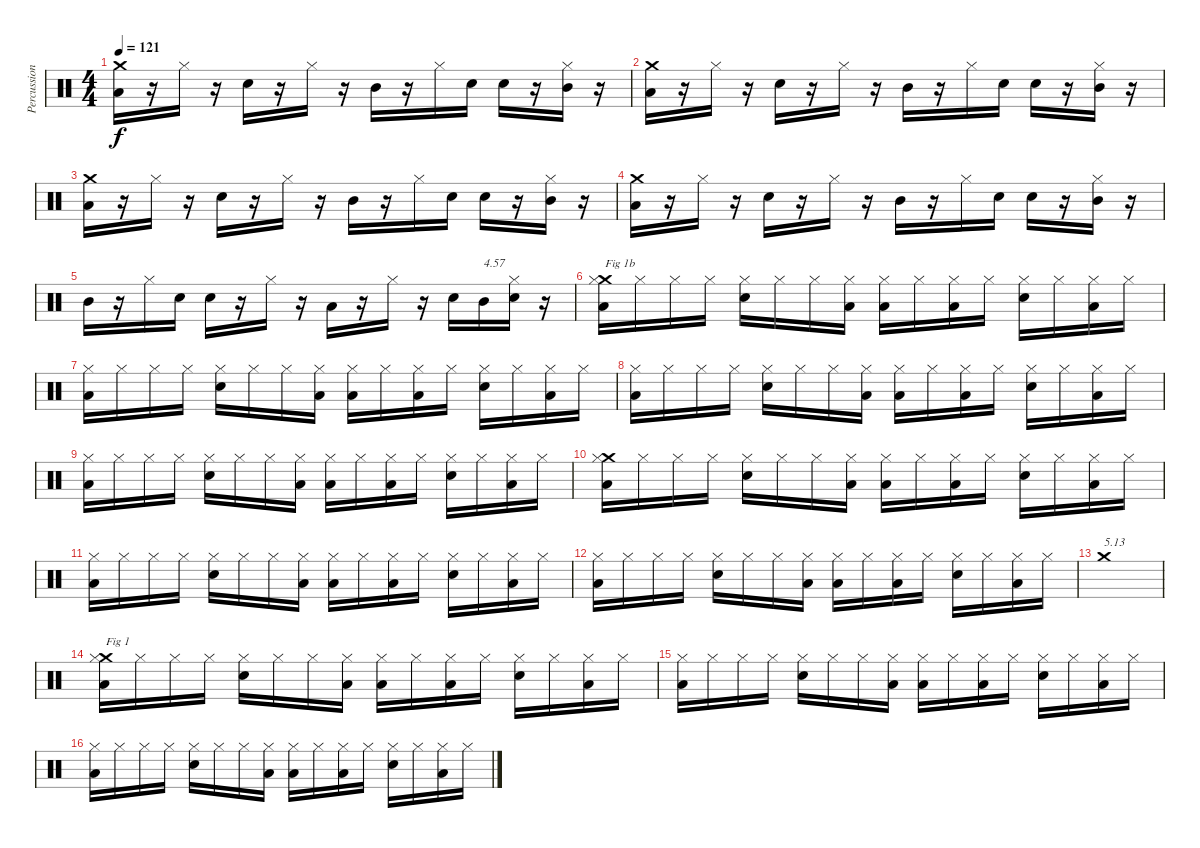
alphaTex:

\track ("Percussions" "Percussion") {instrument percussion}
\staff {score}
\articulation defaults
\ts (4 4)
\tempo 121
\clef neutral
\ks c
("Low Floor Tom (hit)" "Crash medium (hit)").16{dy f} r.16 "Hi-Hat (closed)".16 r.16 "Electric Snare (hit)".16 r.16 "Hi-Hat (closed)".16 r.16 "Mid Tom (hit)".16 r.16 "Hi-Hat (closed)".16 "Electric Snare (hit)".16 "Electric Snare (hit)".16 r.16 ("Mid Tom (hit)" "Hi-Hat (closed)").16 r.16 |
("Low Floor Tom (hit)" "Crash medium (hit)").16 r.16 "Hi-Hat (closed)".16 r.16 "Electric Snare (hit)".16 r.16 "Hi-Hat (closed)".16 r.16 "Mid Tom (hit)".16 r.16 "Hi-Hat (closed)".16 "Electric Snare (hit)".16 "Electric Snare (hit)".16 r.16 ("Mid Tom (hit)" "Hi-Hat (closed)").16 r.16 |
("Low Floor Tom (hit)" "Crash medium (hit)").16 r.16 "Hi-Hat (closed)".16 r.16 "Electric Snare (hit)".16 r.16 "Hi-Hat (closed)".16 r.16 "Mid Tom (hit)".16 r.16 "Hi-Hat (closed)".16 "Electric Snare (hit)".16 "Electric Snare (hit)".16 r.16 ("Mid Tom (hit)" "Hi-Hat (closed)").16 r.16 |
("Low Floor Tom (hit)" "Crash medium (hit)").16 r.16 "Hi-Hat (closed)".16 r.16 "Electric Snare (hit)".16 r.16 "Hi-Hat (closed)".16 r.16 "Mid Tom (hit)".16 r.16 "Hi-Hat (closed)".16 "Electric Snare (hit)".16 "Electric Snare (hit)".16 r.16 ("Mid Tom (hit)" "Hi-Hat (closed)").16 r.16 |
"Mid Tom (hit)".16 r.16 "Hi-Hat (closed)".16 "Electric Snare (hit)".16 "Electric Snare (hit)".16 r.16 "Hi-Hat (closed)".16 r.16 "Low Floor Tom (hit)".16 r.16 "Hi-Hat (closed)".16 r.16 "Electric Snare (hit)".16 "Mid Tom (hit)".16{txt "4.57"} ("Electric Snare (hit)" "Hi-Hat (closed)").16 r.16 |
("Low Floor Tom (hit)" "Crash medium (hit)" "Hi-Hat (closed)").16{txt "Fig 1b"} "Hi-Hat (closed)".16 "Hi-Hat (closed)".16 "Hi-Hat (closed)".16 ("Electric Snare (hit)" "Hi-Hat (closed)").16 "Hi-Hat (closed)".16 "Hi-Hat (closed)".16 ("Low Floor Tom (hit)" "Hi-Hat (closed)").16 ("Low Floor Tom (hit)" "Hi-Hat (closed)").16 "Hi-Hat (closed)".16 ("Low Floor Tom (hit)" "Hi-Hat (closed)").16 "Hi-Hat (closed)".16 ("Electric Snare (hit)" "Hi-Hat (closed)").16 "Hi-Hat (closed)".16 ("Low Floor Tom (hit)" "Hi-Hat (closed)").16 "Hi-Hat (closed)".16 |
("Low Floor Tom (hit)" "Hi-Hat (closed)").16 "Hi-Hat (closed)".16 "Hi-Hat (closed)".16 "Hi-Hat (closed)".16 ("Electric Snare (hit)" "Hi-Hat (closed)").16 "Hi-Hat (closed)".16 "Hi-Hat (closed)".16 ("Low Floor Tom (hit)" "Hi-Hat (closed)").16 ("Low Floor Tom (hit)" "Hi-Hat (closed)").16 "Hi-Hat (closed)".16 ("Low Floor Tom (hit)" "Hi-Hat (closed)").16 "Hi-Hat (closed)".16 ("Electric Snare (hit)" "Hi-Hat (closed)").16 "Hi-Hat (closed)".16 ("Low Floor Tom (hit)" "Hi-Hat (closed)").16 "Hi-Hat (closed)".16 |
("Low Floor Tom (hit)" "Hi-Hat (closed)").16 "Hi-Hat (closed)".16 "Hi-Hat (closed)".16 "Hi-Hat (closed)".16 ("Electric Snare (hit)" "Hi-Hat (closed)").16 "Hi-Hat (closed)".16 "Hi-Hat (closed)".16 ("Low Floor Tom (hit)" "Hi-Hat (closed)").16 ("Low Floor Tom (hit)" "Hi-Hat (closed)").16 "Hi-Hat (closed)".16 ("Low Floor Tom (hit)" "Hi-Hat (closed)").16 "Hi-Hat (closed)".16 ("Electric Snare (hit)" "Hi-Hat (closed)").16 "Hi-Hat (closed)".16 ("Low Floor Tom (hit)" "Hi-Hat (closed)").16 "Hi-Hat (closed)".16 |
("Low Floor Tom (hit)" "Hi-Hat (closed)").16 "Hi-Hat (closed)".16 "Hi-Hat (closed)".16 "Hi-Hat (closed)".16 ("Electric Snare (hit)" "Hi-Hat (closed)").16 "Hi-Hat (closed)".16 "Hi-Hat (closed)".16 ("Low Floor Tom (hit)" "Hi-Hat (closed)").16 ("Low Floor Tom (hit)" "Hi-Hat (closed)").16 "Hi-Hat (closed)".16 ("Low Floor Tom (hit)" "Hi-Hat (closed)").16 "Hi-Hat (closed)".16 ("Electric Snare (hit)" "Hi-Hat (closed)").16 "Hi-Hat (closed)".16 ("Low Floor Tom (hit)" "Hi-Hat (closed)").16 "Hi-Hat (closed)".16 |
("Low Floor Tom (hit)" "Crash medium (hit)" "Hi-Hat (closed)").16 "Hi-Hat (closed)".16 "Hi-Hat (closed)".16 "Hi-Hat (closed)".16 ("Electric Snare (hit)" "Hi-Hat (closed)").16 "Hi-Hat (closed)".16 "Hi-Hat (closed)".16 ("Low Floor Tom (hit)" "Hi-Hat (closed)").16 ("Low Floor Tom (hit)" "Hi-Hat (closed)").16 "Hi-Hat (closed)".16 ("Low Floor Tom (hit)" "Hi-Hat (closed)").16 "Hi-Hat (closed)".16 ("Electric Snare (hit)" "Hi-Hat (closed)").16 "Hi-Hat (closed)".16 ("Low Floor Tom (hit)" "Hi-Hat (closed)").16 "Hi-Hat (closed)".16 |
("Low Floor Tom (hit)" "Hi-Hat (closed)").16 "Hi-Hat (closed)".16 "Hi-Hat (closed)".16 "Hi-Hat (closed)".16 ("Electric Snare (hit)" "Hi-Hat (closed)").16 "Hi-Hat (closed)".16 "Hi-Hat (closed)".16 ("Low Floor Tom (hit)" "Hi-Hat (closed)").16 ("Low Floor Tom (hit)" "Hi-Hat (closed)").16 "Hi-Hat (closed)".16 ("Low Floor Tom (hit)" "Hi-Hat (closed)").16 "Hi-Hat (closed)".16 ("Electric Snare (hit)" "Hi-Hat (closed)").16 "Hi-Hat (closed)".16 ("Low Floor Tom (hit)" "Hi-Hat (closed)").16 "Hi-Hat (closed)".16 |
("Low Floor Tom (hit)" "Hi-Hat (closed)").16 "Hi-Hat (closed)".16 "Hi-Hat (closed)".16 "Hi-Hat (closed)".16 ("Electric Snare (hit)" "Hi-Hat (closed)").16 "Hi-Hat (closed)".16 "Hi-Hat (closed)".16 ("Low Floor Tom (hit)" "Hi-Hat (closed)").16 ("Low Floor Tom (hit)" "Hi-Hat (closed)").16 "Hi-Hat (closed)".16 ("Low Floor Tom (hit)" "Hi-Hat (closed)").16 "Hi-Hat (closed)".16 ("Electric Snare (hit)" "Hi-Hat (closed)").16 "Hi-Hat (closed)".16 ("Low Floor Tom (hit)" "Hi-Hat (closed)").16 "Hi-Hat (closed)".16 |
"Crash medium (hit)".1{txt "5.13"} |
("Low Floor Tom (hit)" "Crash medium (hit)" "Hi-Hat (closed)").16{txt "Fig 1"} "Hi-Hat (closed)".16 "Hi-Hat (closed)".16 "Hi-Hat (closed)".16 ("Electric Snare (hit)" "Hi-Hat (closed)").16 "Hi-Hat (closed)".16 "Hi-Hat (closed)".16 ("Low Floor Tom (hit)" "Hi-Hat (closed)").16 ("Low Floor Tom (hit)" "Hi-Hat (closed)").16 "Hi-Hat (closed)".16 ("Low Floor Tom (hit)" "Hi-Hat (closed)").16 "Hi-Hat (closed)".16 ("Electric Snare (hit)" "Hi-Hat (closed)").16 "Hi-Hat (closed)".16 ("Low Floor Tom (hit)" "Hi-Hat (closed)").16 "Hi-Hat (closed)".16 |
("Low Floor Tom (hit)" "Hi-Hat (closed)").16 "Hi-Hat (closed)".16 "Hi-Hat (closed)".16 "Hi-Hat (closed)".16 ("Electric Snare (hit)" "Hi-Hat (closed)").16 "Hi-Hat (closed)".16 "Hi-Hat (closed)".16 ("Low Floor Tom (hit)" "Hi-Hat (closed)").16 ("Low Floor Tom (hit)" "Hi-Hat (closed)").16 "Hi-Hat (closed)".16 ("Low Floor Tom (hit)" "Hi-Hat (closed)").16 "Hi-Hat (closed)".16 ("Electric Snare (hit)" "Hi-Hat (closed)").16 "Hi-Hat (closed)".16 ("Low Floor Tom (hit)" "Hi-Hat (closed)").16 "Hi-Hat (closed)".16 |
("Low Floor Tom (hit)" "Hi-Hat (closed)").16 "Hi-Hat (closed)".16 "Hi-Hat (closed)".16 "Hi-Hat (closed)".16 ("Electric Snare (hit)" "Hi-Hat (closed)").16 "Hi-Hat (closed)".16 "Hi-Hat (closed)".16 ("Low Floor Tom (hit)" "Hi-Hat (closed)").16 ("Low Floor Tom (hit)" "Hi-Hat (closed)").16 "Hi-Hat (closed)".16 ("Low Floor Tom (hit)" "Hi-Hat (closed)").16 "Hi-Hat (closed)".16 ("Electric Snare (hit)" "Hi-Hat (closed)").16 "Hi-Hat (closed)".16 ("Low Floor Tom (hit)" "Hi-Hat (closed)").16 "Hi-Hat (closed)".16
